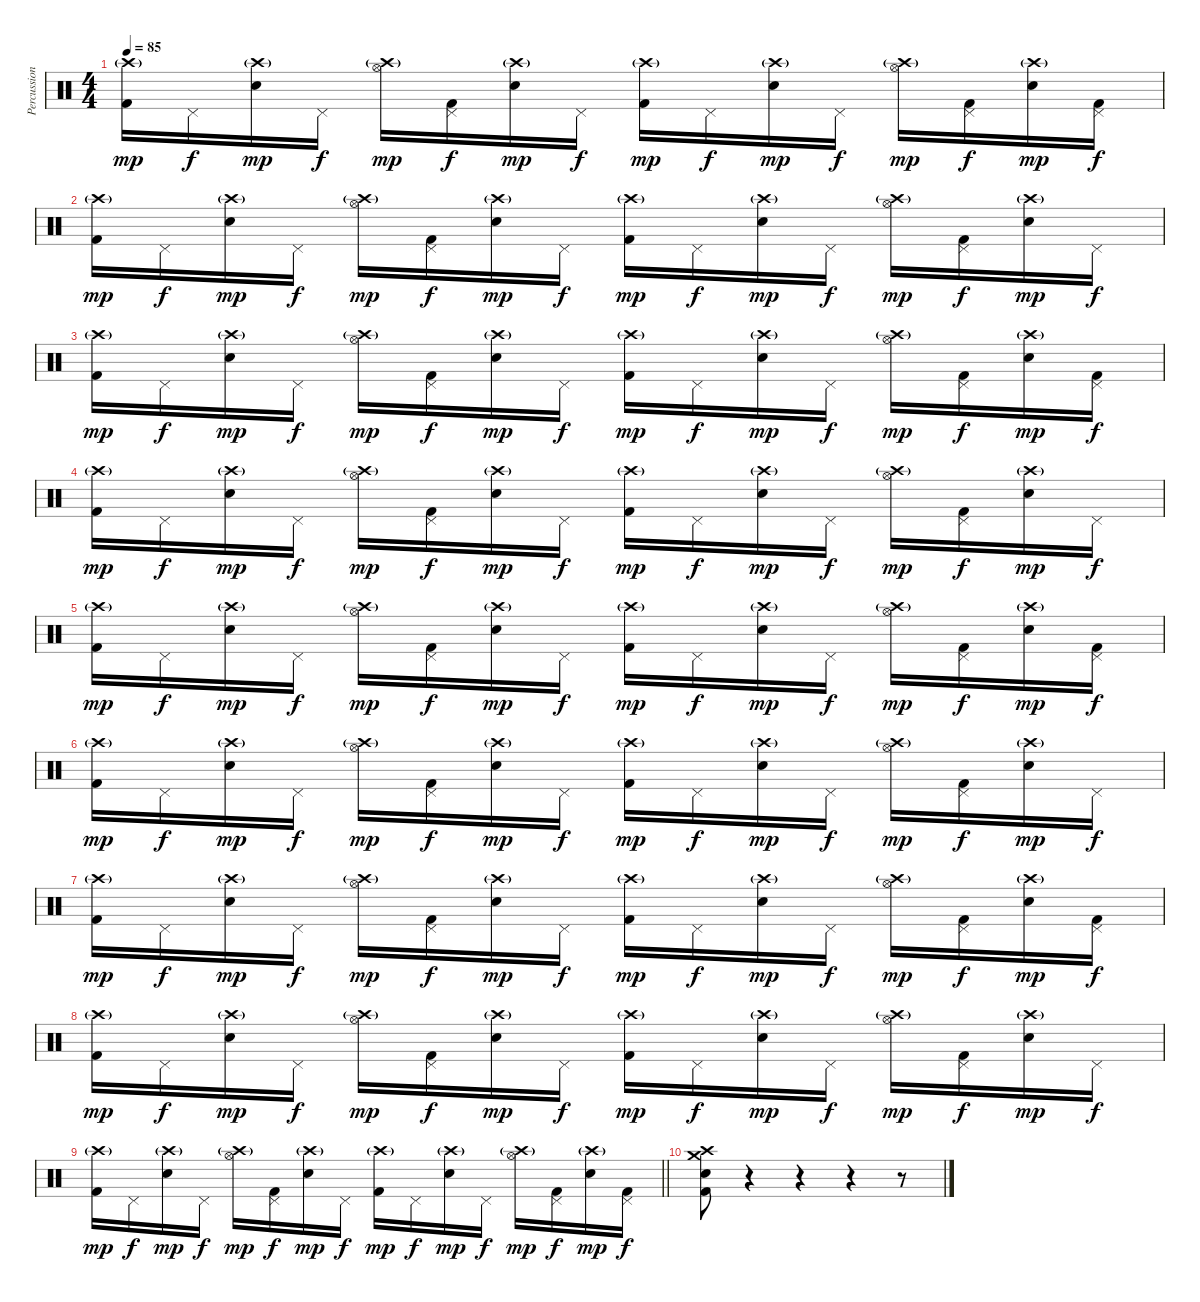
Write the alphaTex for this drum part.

\track ("Percussion" "Percussion") {instrument percussion}
\staff {score}
\articulation defaults
\ts (4 4)
\tempo 85
\clef neutral
\ks c
("Crash high (hit)"{g} "Kick (hit) 2").16{dy mp} "Pedal Hi-Hat (hit)".16{dy f} ("Crash high (hit)"{g} "Snare (hit) 2").16{dy mp} "Pedal Hi-Hat (hit)".16{dy f} ("Crash high (hit)"{g} "Hi-Hat (open)").16{dy mp} ("Pedal Hi-Hat (hit)" "Kick (hit) 2").16{dy f} ("Crash high (hit)"{g} "Snare (hit) 2").16{dy mp} "Pedal Hi-Hat (hit)".16{dy f} ("Crash high (hit)"{g} "Kick (hit) 2").16{dy mp} "Pedal Hi-Hat (hit)".16{dy f} ("Crash high (hit)"{g} "Snare (hit) 2").16{dy mp} "Pedal Hi-Hat (hit)".16{dy f} ("Crash high (hit)"{g} "Hi-Hat (open)").16{dy mp} ("Pedal Hi-Hat (hit)" "Kick (hit) 2").16{dy f} ("Crash high (hit)"{g} "Snare (hit) 2").16{dy mp} ("Pedal Hi-Hat (hit)" "Kick (hit) 2").16{dy f} |
("Crash high (hit)"{g} "Kick (hit) 2").16{dy mp} "Pedal Hi-Hat (hit)".16{dy f} ("Crash high (hit)"{g} "Snare (hit) 2").16{dy mp} "Pedal Hi-Hat (hit)".16{dy f} ("Crash high (hit)"{g} "Hi-Hat (open)").16{dy mp} ("Pedal Hi-Hat (hit)" "Kick (hit) 2").16{dy f} ("Crash high (hit)"{g} "Snare (hit) 2").16{dy mp} "Pedal Hi-Hat (hit)".16{dy f} ("Crash high (hit)"{g} "Kick (hit) 2").16{dy mp} "Pedal Hi-Hat (hit)".16{dy f} ("Crash high (hit)"{g} "Snare (hit) 2").16{dy mp} "Pedal Hi-Hat (hit)".16{dy f} ("Crash high (hit)"{g} "Hi-Hat (open)").16{dy mp} ("Pedal Hi-Hat (hit)" "Kick (hit) 2").16{dy f} ("Crash high (hit)"{g} "Snare (hit) 2").16{dy mp} "Pedal Hi-Hat (hit)".16{dy f} |
("Crash high (hit)"{g} "Kick (hit) 2").16{dy mp} "Pedal Hi-Hat (hit)".16{dy f} ("Crash high (hit)"{g} "Snare (hit) 2").16{dy mp} "Pedal Hi-Hat (hit)".16{dy f} ("Crash high (hit)"{g} "Hi-Hat (open)").16{dy mp} ("Pedal Hi-Hat (hit)" "Kick (hit) 2").16{dy f} ("Crash high (hit)"{g} "Snare (hit) 2").16{dy mp} "Pedal Hi-Hat (hit)".16{dy f} ("Crash high (hit)"{g} "Kick (hit) 2").16{dy mp} "Pedal Hi-Hat (hit)".16{dy f} ("Crash high (hit)"{g} "Snare (hit) 2").16{dy mp} "Pedal Hi-Hat (hit)".16{dy f} ("Crash high (hit)"{g} "Hi-Hat (open)").16{dy mp} ("Pedal Hi-Hat (hit)" "Kick (hit) 2").16{dy f} ("Crash high (hit)"{g} "Snare (hit) 2").16{dy mp} ("Pedal Hi-Hat (hit)" "Kick (hit) 2").16{dy f} |
("Crash high (hit)"{g} "Kick (hit) 2").16{dy mp} "Pedal Hi-Hat (hit)".16{dy f} ("Crash high (hit)"{g} "Snare (hit) 2").16{dy mp} "Pedal Hi-Hat (hit)".16{dy f} ("Crash high (hit)"{g} "Hi-Hat (open)").16{dy mp} ("Pedal Hi-Hat (hit)" "Kick (hit) 2").16{dy f} ("Crash high (hit)"{g} "Snare (hit) 2").16{dy mp} "Pedal Hi-Hat (hit)".16{dy f} ("Crash high (hit)"{g} "Kick (hit) 2").16{dy mp} "Pedal Hi-Hat (hit)".16{dy f} ("Crash high (hit)"{g} "Snare (hit) 2").16{dy mp} "Pedal Hi-Hat (hit)".16{dy f} ("Crash high (hit)"{g} "Hi-Hat (open)").16{dy mp} ("Pedal Hi-Hat (hit)" "Kick (hit) 2").16{dy f} ("Crash high (hit)"{g} "Snare (hit) 2").16{dy mp} "Pedal Hi-Hat (hit)".16{dy f} |
("Crash high (hit)"{g} "Kick (hit) 2").16{dy mp} "Pedal Hi-Hat (hit)".16{dy f} ("Crash high (hit)"{g} "Snare (hit) 2").16{dy mp} "Pedal Hi-Hat (hit)".16{dy f} ("Crash high (hit)"{g} "Hi-Hat (open)").16{dy mp} ("Pedal Hi-Hat (hit)" "Kick (hit) 2").16{dy f} ("Crash high (hit)"{g} "Snare (hit) 2").16{dy mp} "Pedal Hi-Hat (hit)".16{dy f} ("Crash high (hit)"{g} "Kick (hit) 2").16{dy mp} "Pedal Hi-Hat (hit)".16{dy f} ("Crash high (hit)"{g} "Snare (hit) 2").16{dy mp} "Pedal Hi-Hat (hit)".16{dy f} ("Crash high (hit)"{g} "Hi-Hat (open)").16{dy mp} ("Pedal Hi-Hat (hit)" "Kick (hit) 2").16{dy f} ("Crash high (hit)"{g} "Snare (hit) 2").16{dy mp} ("Pedal Hi-Hat (hit)" "Kick (hit) 2").16{dy f} |
("Crash high (hit)"{g} "Kick (hit) 2").16{dy mp} "Pedal Hi-Hat (hit)".16{dy f} ("Crash high (hit)"{g} "Snare (hit) 2").16{dy mp} "Pedal Hi-Hat (hit)".16{dy f} ("Crash high (hit)"{g} "Hi-Hat (open)").16{dy mp} ("Pedal Hi-Hat (hit)" "Kick (hit) 2").16{dy f} ("Crash high (hit)"{g} "Snare (hit) 2").16{dy mp} "Pedal Hi-Hat (hit)".16{dy f} ("Crash high (hit)"{g} "Kick (hit) 2").16{dy mp} "Pedal Hi-Hat (hit)".16{dy f} ("Crash high (hit)"{g} "Snare (hit) 2").16{dy mp} "Pedal Hi-Hat (hit)".16{dy f} ("Crash high (hit)"{g} "Hi-Hat (open)").16{dy mp} ("Pedal Hi-Hat (hit)" "Kick (hit) 2").16{dy f} ("Crash high (hit)"{g} "Snare (hit) 2").16{dy mp} "Pedal Hi-Hat (hit)".16{dy f} |
("Crash high (hit)"{g} "Kick (hit) 2").16{dy mp} "Pedal Hi-Hat (hit)".16{dy f} ("Crash high (hit)"{g} "Snare (hit) 2").16{dy mp} "Pedal Hi-Hat (hit)".16{dy f} ("Crash high (hit)"{g} "Hi-Hat (open)").16{dy mp} ("Pedal Hi-Hat (hit)" "Kick (hit) 2").16{dy f} ("Crash high (hit)"{g} "Snare (hit) 2").16{dy mp} "Pedal Hi-Hat (hit)".16{dy f} ("Crash high (hit)"{g} "Kick (hit) 2").16{dy mp} "Pedal Hi-Hat (hit)".16{dy f} ("Crash high (hit)"{g} "Snare (hit) 2").16{dy mp} "Pedal Hi-Hat (hit)".16{dy f} ("Crash high (hit)"{g} "Hi-Hat (open)").16{dy mp} ("Pedal Hi-Hat (hit)" "Kick (hit) 2").16{dy f} ("Crash high (hit)"{g} "Snare (hit) 2").16{dy mp} ("Pedal Hi-Hat (hit)" "Kick (hit) 2").16{dy f} |
("Crash high (hit)"{g} "Kick (hit) 2").16{dy mp} "Pedal Hi-Hat (hit)".16{dy f} ("Crash high (hit)"{g} "Snare (hit) 2").16{dy mp} "Pedal Hi-Hat (hit)".16{dy f} ("Crash high (hit)"{g} "Hi-Hat (open)").16{dy mp} ("Pedal Hi-Hat (hit)" "Kick (hit) 2").16{dy f} ("Crash high (hit)"{g} "Snare (hit) 2").16{dy mp} "Pedal Hi-Hat (hit)".16{dy f} ("Crash high (hit)"{g} "Kick (hit) 2").16{dy mp} "Pedal Hi-Hat (hit)".16{dy f} ("Crash high (hit)"{g} "Snare (hit) 2").16{dy mp} "Pedal Hi-Hat (hit)".16{dy f} ("Crash high (hit)"{g} "Hi-Hat (open)").16{dy mp} ("Pedal Hi-Hat (hit)" "Kick (hit) 2").16{dy f} ("Crash high (hit)"{g} "Snare (hit) 2").16{dy mp} "Pedal Hi-Hat (hit)".16{dy f} |
\barLineRight lightlight
("Crash high (hit)"{g} "Kick (hit) 2").16{dy mp} "Pedal Hi-Hat (hit)".16{dy f} ("Crash high (hit)"{g} "Snare (hit) 2").16{dy mp} "Pedal Hi-Hat (hit)".16{dy f} ("Crash high (hit)"{g} "Hi-Hat (open)").16{dy mp} ("Pedal Hi-Hat (hit)" "Kick (hit) 2").16{dy f} ("Crash high (hit)"{g} "Snare (hit) 2").16{dy mp} "Pedal Hi-Hat (hit)".16{dy f} ("Crash high (hit)"{g} "Kick (hit) 2").16{dy mp} "Pedal Hi-Hat (hit)".16{dy f} ("Crash high (hit)"{g} "Snare (hit) 2").16{dy mp} "Pedal Hi-Hat (hit)".16{dy f} ("Crash high (hit)"{g} "Hi-Hat (open)").16{dy mp} ("Pedal Hi-Hat (hit)" "Kick (hit) 2").16{dy f} ("Crash high (hit)"{g} "Snare (hit) 2").16{dy mp} ("Pedal Hi-Hat (hit)" "Kick (hit) 2").16{dy f} |
("Crash high (hit)" "Crash medium (hit)" "Snare (hit) 2" "Kick (hit) 2").8 r.4 r.4 r.4 r.8
